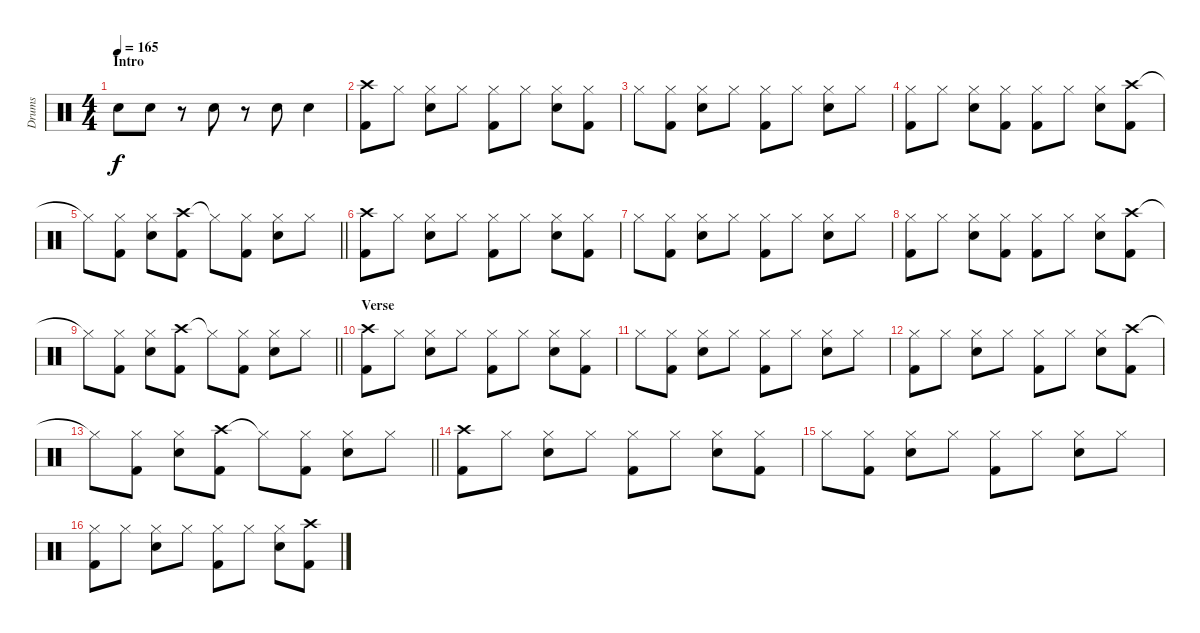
\track ("Drums" "Drums") {instrument percussion}
\staff {score}
\articulation defaults
\ts (4 4)
\section ("" "Intro")
\tempo 165
\clef neutral
\ks c "Snare (hit) 2".8{dy f} "Snare (hit) 2".8
r.8 "Snare (hit) 2".8 r.8 "Snare (hit) 2".8 "Snare (hit) 2".4 |
("Crash high (hit)" "Kick (hit) 2").8 "Hi-Hat (closed)".8 ("Hi-Hat (closed)" "Snare (hit) 2").8 "Hi-Hat (closed)".8 ("Hi-Hat (closed)" "Kick (hit) 2").8 "Hi-Hat (closed)".8 ("Hi-Hat (closed)" "Snare (hit) 2").8 ("Hi-Hat (closed)" "Kick (hit) 2").8 |
"Hi-Hat (closed)".8 ("Hi-Hat (closed)" "Kick (hit) 2").8 ("Hi-Hat (closed)" "Snare (hit) 2").8 "Hi-Hat (closed)".8 ("Hi-Hat (closed)" "Kick (hit) 2").8 "Hi-Hat (closed)".8 ("Hi-Hat (closed)" "Snare (hit) 2").8 "Hi-Hat (closed)".8 |
("Hi-Hat (closed)" "Kick (hit) 2").8 "Hi-Hat (closed)".8 ("Hi-Hat (closed)" "Snare (hit) 2").8 ("Hi-Hat (closed)" "Kick (hit) 2").8 ("Hi-Hat (closed)" "Kick (hit) 2").8 "Hi-Hat (closed)".8 ("Hi-Hat (closed)" "Snare (hit) 2").8 ("Crash high (hit)" "Kick (hit) 2").8 |
\barLineRight lightlight "Hi-Hat (closed)"{t}.8
("Hi-Hat (closed)" "Kick (hit) 2").8 ("Hi-Hat (closed)" "Snare (hit) 2").8 ("Crash high (hit)" "Kick (hit) 2").8 "Hi-Hat (closed)"{t}.8 ("Hi-Hat (closed)" "Kick (hit) 2").8 ("Hi-Hat (closed)" "Snare (hit) 2").8 "Hi-Hat (closed)".8 |
("Crash high (hit)" "Kick (hit) 2").8 "Hi-Hat (closed)".8 ("Hi-Hat (closed)" "Snare (hit) 2").8 "Hi-Hat (closed)".8 ("Hi-Hat (closed)" "Kick (hit) 2").8 "Hi-Hat (closed)".8 ("Hi-Hat (closed)" "Snare (hit) 2").8 ("Hi-Hat (closed)" "Kick (hit) 2").8 |
"Hi-Hat (closed)".8 ("Hi-Hat (closed)" "Kick (hit) 2").8 ("Hi-Hat (closed)" "Snare (hit) 2").8 "Hi-Hat (closed)".8 ("Hi-Hat (closed)" "Kick (hit) 2").8 "Hi-Hat (closed)".8 ("Hi-Hat (closed)" "Snare (hit) 2").8 "Hi-Hat (closed)".8 |
("Hi-Hat (closed)" "Kick (hit) 2").8 "Hi-Hat (closed)".8 ("Hi-Hat (closed)" "Snare (hit) 2").8 ("Hi-Hat (closed)" "Kick (hit) 2").8 ("Hi-Hat (closed)" "Kick (hit) 2").8 "Hi-Hat (closed)".8 ("Hi-Hat (closed)" "Snare (hit) 2").8 ("Crash high (hit)" "Kick (hit) 2").8 |
\barLineRight lightlight "Hi-Hat (closed)"{t}.8
("Hi-Hat (closed)" "Kick (hit) 2").8 ("Hi-Hat (closed)" "Snare (hit) 2").8 ("Crash high (hit)" "Kick (hit) 2").8 "Hi-Hat (closed)"{t}.8 ("Hi-Hat (closed)" "Kick (hit) 2").8 ("Hi-Hat (closed)" "Snare (hit) 2").8 "Hi-Hat (closed)".8 |
\section ("" "Verse")
("Crash high (hit)" "Kick (hit) 2").8 "Hi-Hat (closed)".8 ("Hi-Hat (closed)" "Snare (hit) 2").8 "Hi-Hat (closed)".8 ("Hi-Hat (closed)" "Kick (hit) 2").8 "Hi-Hat (closed)".8 ("Hi-Hat (closed)" "Snare (hit) 2").8 ("Hi-Hat (closed)" "Kick (hit) 2").8 |
"Hi-Hat (closed)".8 ("Hi-Hat (closed)" "Kick (hit) 2").8 ("Hi-Hat (closed)" "Snare (hit) 2").8 "Hi-Hat (closed)".8 ("Hi-Hat (closed)" "Kick (hit) 2").8 "Hi-Hat (closed)".8 ("Hi-Hat (closed)" "Snare (hit) 2").8 "Hi-Hat (closed)".8 |
("Hi-Hat (closed)" "Kick (hit) 2").8 "Hi-Hat (closed)".8 ("Hi-Hat (closed)" "Snare (hit) 2").8 "Hi-Hat (closed)".8 ("Hi-Hat (closed)" "Kick (hit) 2").8 "Hi-Hat (closed)".8 ("Hi-Hat (closed)" "Snare (hit) 2").8 ("Crash high (hit)" "Kick (hit) 2").8 |
\barLineRight lightlight "Hi-Hat (closed)"{t}.8
("Hi-Hat (closed)" "Kick (hit) 2").8 ("Hi-Hat (closed)" "Snare (hit) 2").8 ("Crash high (hit)" "Kick (hit) 2").8 "Hi-Hat (closed)"{t}.8 ("Hi-Hat (closed)" "Kick (hit) 2").8 ("Hi-Hat (closed)" "Snare (hit) 2").8 "Hi-Hat (closed)".8 |
("Crash high (hit)" "Kick (hit) 2").8 "Hi-Hat (closed)".8 ("Hi-Hat (closed)" "Snare (hit) 2").8 "Hi-Hat (closed)".8 ("Hi-Hat (closed)" "Kick (hit) 2").8 "Hi-Hat (closed)".8 ("Hi-Hat (closed)" "Snare (hit) 2").8 ("Hi-Hat (closed)" "Kick (hit) 2").8 |
"Hi-Hat (closed)".8 ("Hi-Hat (closed)" "Kick (hit) 2").8 ("Hi-Hat (closed)" "Snare (hit) 2").8 "Hi-Hat (closed)".8 ("Hi-Hat (closed)" "Kick (hit) 2").8 "Hi-Hat (closed)".8 ("Hi-Hat (closed)" "Snare (hit) 2").8 "Hi-Hat (closed)".8 |
("Hi-Hat (closed)" "Kick (hit) 2").8 "Hi-Hat (closed)".8 ("Hi-Hat (closed)" "Snare (hit) 2").8 "Hi-Hat (closed)".8 ("Hi-Hat (closed)" "Kick (hit) 2").8 "Hi-Hat (closed)".8 ("Hi-Hat (closed)" "Snare (hit) 2").8 ("Crash high (hit)" "Kick (hit) 2").8
